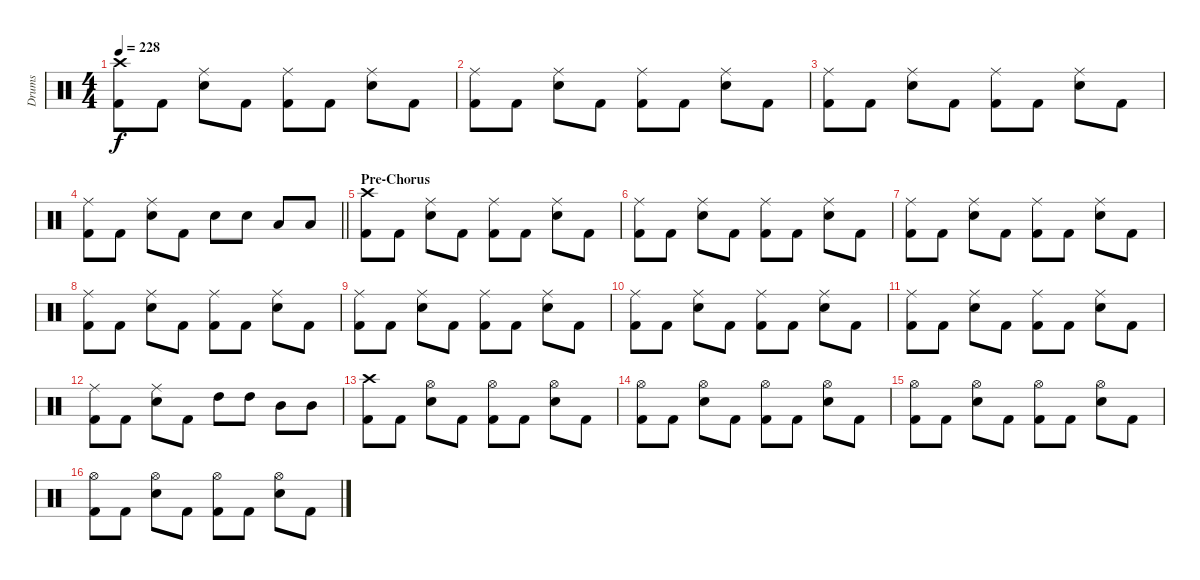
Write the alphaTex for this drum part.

\track ("Drums" "Drums") {instrument percussion}
\staff {score}
\articulation defaults
\ts (4 4)
\tempo 228
\clef neutral
\ks c
("Crash high (hit)" "Kick (hit) 2").8{dy f} "Kick (hit) 2".8 ("Ride (middle)" "Snare (hit) 2").8 "Kick (hit) 2".8 ("Ride (middle)" "Kick (hit) 2").8 "Kick (hit) 2".8 ("Ride (middle)" "Snare (hit) 2").8 "Kick (hit) 2".8 |
("Ride (middle)" "Kick (hit) 2").8 "Kick (hit) 2".8 ("Ride (middle)" "Snare (hit) 2").8 "Kick (hit) 2".8 ("Ride (middle)" "Kick (hit) 2").8 "Kick (hit) 2".8 ("Ride (middle)" "Snare (hit) 2").8 "Kick (hit) 2".8 |
("Ride (middle)" "Kick (hit) 2").8 "Kick (hit) 2".8 ("Ride (middle)" "Snare (hit) 2").8 "Kick (hit) 2".8 ("Ride (middle)" "Kick (hit) 2").8 "Kick (hit) 2".8 ("Ride (middle)" "Snare (hit) 2").8 "Kick (hit) 2".8 |
\barLineRight lightlight
("Ride (middle)" "Kick (hit) 2").8 "Kick (hit) 2".8 ("Ride (middle)" "Snare (hit) 2").8 "Kick (hit) 2".8 "Snare (hit) 2".8 "Snare (hit) 2".8 "Low Tom (hit)".8 "Low Tom (hit)".8 |
\section ("" "Pre-Chorus")
("Crash high (hit)" "Kick (hit) 2").8 "Kick (hit) 2".8 ("Ride (middle)" "Snare (hit) 2").8 "Kick (hit) 2".8 ("Ride (middle)" "Kick (hit) 2").8 "Kick (hit) 2".8 ("Ride (middle)" "Snare (hit) 2").8 "Kick (hit) 2".8 |
("Ride (middle)" "Kick (hit) 2").8 "Kick (hit) 2".8 ("Ride (middle)" "Snare (hit) 2").8 "Kick (hit) 2".8 ("Ride (middle)" "Kick (hit) 2").8 "Kick (hit) 2".8 ("Ride (middle)" "Snare (hit) 2").8 "Kick (hit) 2".8 |
("Ride (middle)" "Kick (hit) 2").8 "Kick (hit) 2".8 ("Ride (middle)" "Snare (hit) 2").8 "Kick (hit) 2".8 ("Ride (middle)" "Kick (hit) 2").8 "Kick (hit) 2".8 ("Ride (middle)" "Snare (hit) 2").8 "Kick (hit) 2".8 |
("Ride (middle)" "Kick (hit) 2").8 "Kick (hit) 2".8 ("Ride (middle)" "Snare (hit) 2").8 "Kick (hit) 2".8 ("Ride (middle)" "Kick (hit) 2").8 "Kick (hit) 2".8 ("Ride (middle)" "Snare (hit) 2").8 "Kick (hit) 2".8 |
("Ride (middle)" "Kick (hit) 2").8 "Kick (hit) 2".8 ("Ride (middle)" "Snare (hit) 2").8 "Kick (hit) 2".8 ("Ride (middle)" "Kick (hit) 2").8 "Kick (hit) 2".8 ("Ride (middle)" "Snare (hit) 2").8 "Kick (hit) 2".8 |
("Ride (middle)" "Kick (hit) 2").8 "Kick (hit) 2".8 ("Ride (middle)" "Snare (hit) 2").8 "Kick (hit) 2".8 ("Ride (middle)" "Kick (hit) 2").8 "Kick (hit) 2".8 ("Ride (middle)" "Snare (hit) 2").8 "Kick (hit) 2".8 |
("Ride (middle)" "Kick (hit) 2").8 "Kick (hit) 2".8 ("Ride (middle)" "Snare (hit) 2").8 "Kick (hit) 2".8 ("Ride (middle)" "Kick (hit) 2").8 "Kick (hit) 2".8 ("Ride (middle)" "Snare (hit) 2").8 "Kick (hit) 2".8 |
("Ride (middle)" "Kick (hit) 2").8 "Kick (hit) 2".8 ("Ride (middle)" "Snare (hit) 2").8 "Kick (hit) 2".8 "High Tom (hit)".8 "High Tom (hit)".8 "Mid Tom (hit)".8 "Mid Tom (hit)".8 |
("Crash high (hit)" "Kick (hit) 2").8 "Kick (hit) 2".8 ("Hi-Hat (open)" "Snare (hit) 2").8 "Kick (hit) 2".8 ("Hi-Hat (open)" "Kick (hit) 2").8 "Kick (hit) 2".8 ("Hi-Hat (open)" "Snare (hit) 2").8 "Kick (hit) 2".8 |
("Hi-Hat (open)" "Kick (hit) 2").8 "Kick (hit) 2".8 ("Hi-Hat (open)" "Snare (hit) 2").8 "Kick (hit) 2".8 ("Hi-Hat (open)" "Kick (hit) 2").8 "Kick (hit) 2".8 ("Hi-Hat (open)" "Snare (hit) 2").8 "Kick (hit) 2".8 |
("Hi-Hat (open)" "Kick (hit) 2").8 "Kick (hit) 2".8 ("Hi-Hat (open)" "Snare (hit) 2").8 "Kick (hit) 2".8 ("Hi-Hat (open)" "Kick (hit) 2").8 "Kick (hit) 2".8 ("Hi-Hat (open)" "Snare (hit) 2").8 "Kick (hit) 2".8 |
("Hi-Hat (open)" "Kick (hit) 2").8 "Kick (hit) 2".8 ("Hi-Hat (open)" "Snare (hit) 2").8 "Kick (hit) 2".8 ("Hi-Hat (open)" "Kick (hit) 2").8 "Kick (hit) 2".8 ("Hi-Hat (open)" "Snare (hit) 2").8 "Kick (hit) 2".8
